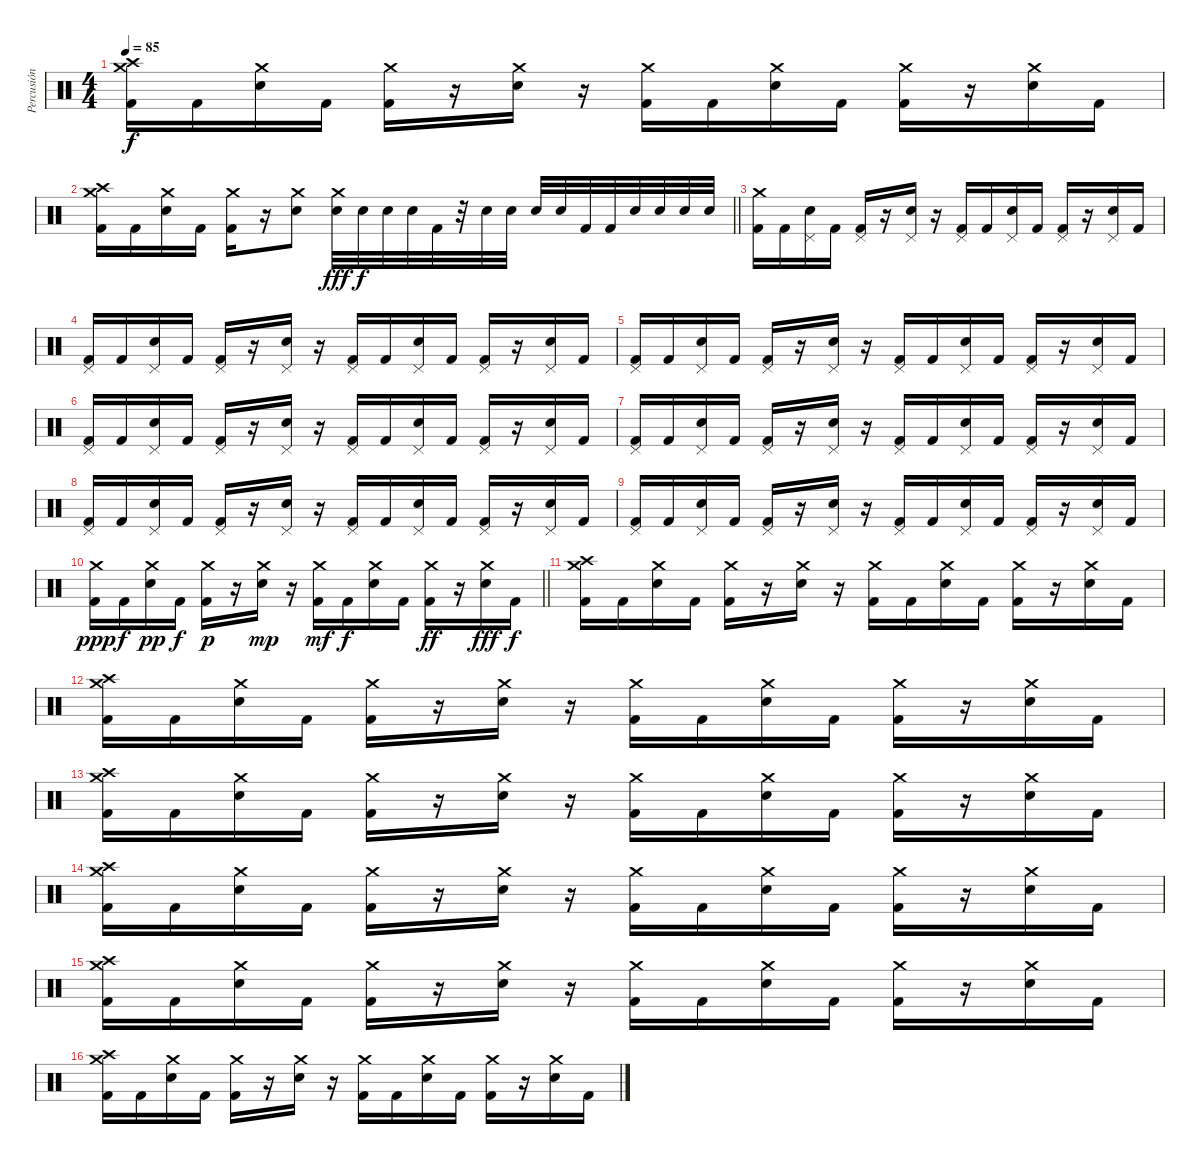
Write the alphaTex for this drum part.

\track ("Percusión" "Percusión") {instrument percussion}
\staff {score}
\articulation defaults
\ts (4 4)
\tempo 85
\clef neutral
\ks c
("Crash high (hit)" "Crash medium (hit)" "Kick (hit) 2").16{dy f} "Kick (hit) 2".16 ("Crash medium (hit)" "Electric Snare (hit)").16 "Kick (hit) 2".16 ("Crash medium (hit)" "Kick (hit) 2").16 r.16 ("Crash medium (hit)" "Electric Snare (hit)").16 r.16 ("Crash medium (hit)" "Kick (hit) 2").16 "Kick (hit) 2".16 ("Crash medium (hit)" "Electric Snare (hit)").16 "Kick (hit) 2".16 ("Crash medium (hit)" "Kick (hit) 2").16 r.16 ("Crash medium (hit)" "Electric Snare (hit)").16 "Kick (hit) 2".16 |
\barLineRight lightlight
("Crash high (hit)" "Crash medium (hit)" "Kick (hit) 2").16 "Kick (hit) 2".16 ("Crash medium (hit)" "Electric Snare (hit)").16 "Kick (hit) 2".16 ("Crash medium (hit)" "Kick (hit) 2").16 r.16 ("Crash medium (hit)" "Electric Snare (hit)").8 ("Crash medium (hit)" "Electric Snare (hit)").32{dy fff} "Electric Snare (hit)".32{dy f} "Electric Snare (hit)".32 "Electric Snare (hit)".32 "Kick (hit) 2".32 r.32 "Electric Snare (hit)".32 "Electric Snare (hit)".32 "Electric Snare (hit)".32 "Electric Snare (hit)".32 "Kick (hit) 2".32 "Kick (hit) 2".32 "Electric Snare (hit)".32 "Electric Snare (hit)".32 "Electric Snare (hit)".32 "Electric Snare (hit)".32 |
("Crash medium (hit)" "Kick (hit) 2").16 "Kick (hit) 2".16 ("Pedal Hi-Hat (hit)" "Electric Snare (hit)").16 "Kick (hit) 2".16 ("Pedal Hi-Hat (hit)" "Kick (hit) 2").16 r.16 ("Pedal Hi-Hat (hit)" "Electric Snare (hit)").16 r.16 ("Pedal Hi-Hat (hit)" "Kick (hit) 2").16 "Kick (hit) 2".16 ("Pedal Hi-Hat (hit)" "Electric Snare (hit)").16 "Kick (hit) 2".16 ("Pedal Hi-Hat (hit)" "Kick (hit) 2").16 r.16 ("Pedal Hi-Hat (hit)" "Electric Snare (hit)").16 "Kick (hit) 2".16 |
("Pedal Hi-Hat (hit)" "Kick (hit) 2").16 "Kick (hit) 2".16 ("Pedal Hi-Hat (hit)" "Electric Snare (hit)").16 "Kick (hit) 2".16 ("Pedal Hi-Hat (hit)" "Kick (hit) 2").16 r.16 ("Pedal Hi-Hat (hit)" "Electric Snare (hit)").16 r.16 ("Pedal Hi-Hat (hit)" "Kick (hit) 2").16 "Kick (hit) 2".16 ("Pedal Hi-Hat (hit)" "Electric Snare (hit)").16 "Kick (hit) 2".16 ("Pedal Hi-Hat (hit)" "Kick (hit) 2").16 r.16 ("Pedal Hi-Hat (hit)" "Electric Snare (hit)").16 "Kick (hit) 2".16 |
("Pedal Hi-Hat (hit)" "Kick (hit) 2").16 "Kick (hit) 2".16 ("Pedal Hi-Hat (hit)" "Electric Snare (hit)").16 "Kick (hit) 2".16 ("Pedal Hi-Hat (hit)" "Kick (hit) 2").16 r.16 ("Pedal Hi-Hat (hit)" "Electric Snare (hit)").16 r.16 ("Pedal Hi-Hat (hit)" "Kick (hit) 2").16 "Kick (hit) 2".16 ("Pedal Hi-Hat (hit)" "Electric Snare (hit)").16 "Kick (hit) 2".16 ("Pedal Hi-Hat (hit)" "Kick (hit) 2").16 r.16 ("Pedal Hi-Hat (hit)" "Electric Snare (hit)").16 "Kick (hit) 2".16 |
("Pedal Hi-Hat (hit)" "Kick (hit) 2").16 "Kick (hit) 2".16 ("Pedal Hi-Hat (hit)" "Electric Snare (hit)").16 "Kick (hit) 2".16 ("Pedal Hi-Hat (hit)" "Kick (hit) 2").16 r.16 ("Pedal Hi-Hat (hit)" "Electric Snare (hit)").16 r.16 ("Pedal Hi-Hat (hit)" "Kick (hit) 2").16 "Kick (hit) 2".16 ("Pedal Hi-Hat (hit)" "Electric Snare (hit)").16 "Kick (hit) 2".16 ("Pedal Hi-Hat (hit)" "Kick (hit) 2").16 r.16 ("Pedal Hi-Hat (hit)" "Electric Snare (hit)").16 "Kick (hit) 2".16 |
("Pedal Hi-Hat (hit)" "Kick (hit) 2").16 "Kick (hit) 2".16 ("Pedal Hi-Hat (hit)" "Electric Snare (hit)").16 "Kick (hit) 2".16 ("Pedal Hi-Hat (hit)" "Kick (hit) 2").16 r.16 ("Pedal Hi-Hat (hit)" "Electric Snare (hit)").16 r.16 ("Pedal Hi-Hat (hit)" "Kick (hit) 2").16 "Kick (hit) 2".16 ("Pedal Hi-Hat (hit)" "Electric Snare (hit)").16 "Kick (hit) 2".16 ("Pedal Hi-Hat (hit)" "Kick (hit) 2").16 r.16 ("Pedal Hi-Hat (hit)" "Electric Snare (hit)").16 "Kick (hit) 2".16 |
("Pedal Hi-Hat (hit)" "Kick (hit) 2").16 "Kick (hit) 2".16 ("Pedal Hi-Hat (hit)" "Electric Snare (hit)").16 "Kick (hit) 2".16 ("Pedal Hi-Hat (hit)" "Kick (hit) 2").16 r.16 ("Pedal Hi-Hat (hit)" "Electric Snare (hit)").16 r.16 ("Pedal Hi-Hat (hit)" "Kick (hit) 2").16 "Kick (hit) 2".16 ("Pedal Hi-Hat (hit)" "Electric Snare (hit)").16 "Kick (hit) 2".16 ("Pedal Hi-Hat (hit)" "Kick (hit) 2").16 r.16 ("Pedal Hi-Hat (hit)" "Electric Snare (hit)").16 "Kick (hit) 2".16 |
("Pedal Hi-Hat (hit)" "Kick (hit) 2").16 "Kick (hit) 2".16 ("Pedal Hi-Hat (hit)" "Electric Snare (hit)").16 "Kick (hit) 2".16 ("Pedal Hi-Hat (hit)" "Kick (hit) 2").16 r.16 ("Pedal Hi-Hat (hit)" "Electric Snare (hit)").16 r.16 ("Pedal Hi-Hat (hit)" "Kick (hit) 2").16 "Kick (hit) 2".16 ("Pedal Hi-Hat (hit)" "Electric Snare (hit)").16 "Kick (hit) 2".16 ("Pedal Hi-Hat (hit)" "Kick (hit) 2").16 r.16 ("Pedal Hi-Hat (hit)" "Electric Snare (hit)").16 "Kick (hit) 2".16 |
\barLineRight lightlight
("Crash medium (hit)" "Kick (hit) 2").16{dy ppp} "Kick (hit) 2".16{dy f} ("Crash medium (hit)" "Electric Snare (hit)").16{dy pp} "Kick (hit) 2".16{dy f} ("Crash medium (hit)" "Kick (hit) 2").16{dy p} r.16 ("Crash medium (hit)" "Electric Snare (hit)").16{dy mp} r.16 ("Crash medium (hit)" "Kick (hit) 2").16{dy mf} "Kick (hit) 2".16{dy f} ("Crash medium (hit)" "Electric Snare (hit)").16 "Kick (hit) 2".16 ("Crash medium (hit)" "Kick (hit) 2").16{dy ff} r.16 ("Crash medium (hit)" "Electric Snare (hit)").16{dy fff} "Kick (hit) 2".16{dy f} |
("Crash high (hit)" "Crash medium (hit)" "Kick (hit) 2").16 "Kick (hit) 2".16 ("Crash medium (hit)" "Electric Snare (hit)").16 "Kick (hit) 2".16 ("Crash medium (hit)" "Kick (hit) 2").16 r.16 ("Crash medium (hit)" "Electric Snare (hit)").16 r.16 ("Crash medium (hit)" "Kick (hit) 2").16 "Kick (hit) 2".16 ("Crash medium (hit)" "Electric Snare (hit)").16 "Kick (hit) 2".16 ("Crash medium (hit)" "Kick (hit) 2").16 r.16 ("Crash medium (hit)" "Electric Snare (hit)").16 "Kick (hit) 2".16 |
("Crash high (hit)" "Crash medium (hit)" "Kick (hit) 2").16 "Kick (hit) 2".16 ("Crash medium (hit)" "Electric Snare (hit)").16 "Kick (hit) 2".16 ("Crash medium (hit)" "Kick (hit) 2").16 r.16 ("Crash medium (hit)" "Electric Snare (hit)").16 r.16 ("Crash medium (hit)" "Kick (hit) 2").16 "Kick (hit) 2".16 ("Crash medium (hit)" "Electric Snare (hit)").16 "Kick (hit) 2".16 ("Crash medium (hit)" "Kick (hit) 2").16 r.16 ("Crash medium (hit)" "Electric Snare (hit)").16 "Kick (hit) 2".16 |
("Crash high (hit)" "Crash medium (hit)" "Kick (hit) 2").16 "Kick (hit) 2".16 ("Crash medium (hit)" "Electric Snare (hit)").16 "Kick (hit) 2".16 ("Crash medium (hit)" "Kick (hit) 2").16 r.16 ("Crash medium (hit)" "Electric Snare (hit)").16 r.16 ("Crash medium (hit)" "Kick (hit) 2").16 "Kick (hit) 2".16 ("Crash medium (hit)" "Electric Snare (hit)").16 "Kick (hit) 2".16 ("Crash medium (hit)" "Kick (hit) 2").16 r.16 ("Crash medium (hit)" "Electric Snare (hit)").16 "Kick (hit) 2".16 |
("Crash high (hit)" "Crash medium (hit)" "Kick (hit) 2").16 "Kick (hit) 2".16 ("Crash medium (hit)" "Electric Snare (hit)").16 "Kick (hit) 2".16 ("Crash medium (hit)" "Kick (hit) 2").16 r.16 ("Crash medium (hit)" "Electric Snare (hit)").16 r.16 ("Crash medium (hit)" "Kick (hit) 2").16 "Kick (hit) 2".16 ("Crash medium (hit)" "Electric Snare (hit)").16 "Kick (hit) 2".16 ("Crash medium (hit)" "Kick (hit) 2").16 r.16 ("Crash medium (hit)" "Electric Snare (hit)").16 "Kick (hit) 2".16 |
("Crash high (hit)" "Crash medium (hit)" "Kick (hit) 2").16 "Kick (hit) 2".16 ("Crash medium (hit)" "Electric Snare (hit)").16 "Kick (hit) 2".16 ("Crash medium (hit)" "Kick (hit) 2").16 r.16 ("Crash medium (hit)" "Electric Snare (hit)").16 r.16 ("Crash medium (hit)" "Kick (hit) 2").16 "Kick (hit) 2".16 ("Crash medium (hit)" "Electric Snare (hit)").16 "Kick (hit) 2".16 ("Crash medium (hit)" "Kick (hit) 2").16 r.16 ("Crash medium (hit)" "Electric Snare (hit)").16 "Kick (hit) 2".16 |
("Crash high (hit)" "Crash medium (hit)" "Kick (hit) 2").16 "Kick (hit) 2".16 ("Crash medium (hit)" "Electric Snare (hit)").16 "Kick (hit) 2".16 ("Crash medium (hit)" "Kick (hit) 2").16 r.16 ("Crash medium (hit)" "Electric Snare (hit)").16 r.16 ("Crash medium (hit)" "Kick (hit) 2").16 "Kick (hit) 2".16 ("Crash medium (hit)" "Electric Snare (hit)").16 "Kick (hit) 2".16 ("Crash medium (hit)" "Kick (hit) 2").16 r.16 ("Crash medium (hit)" "Electric Snare (hit)").16 "Kick (hit) 2".16
